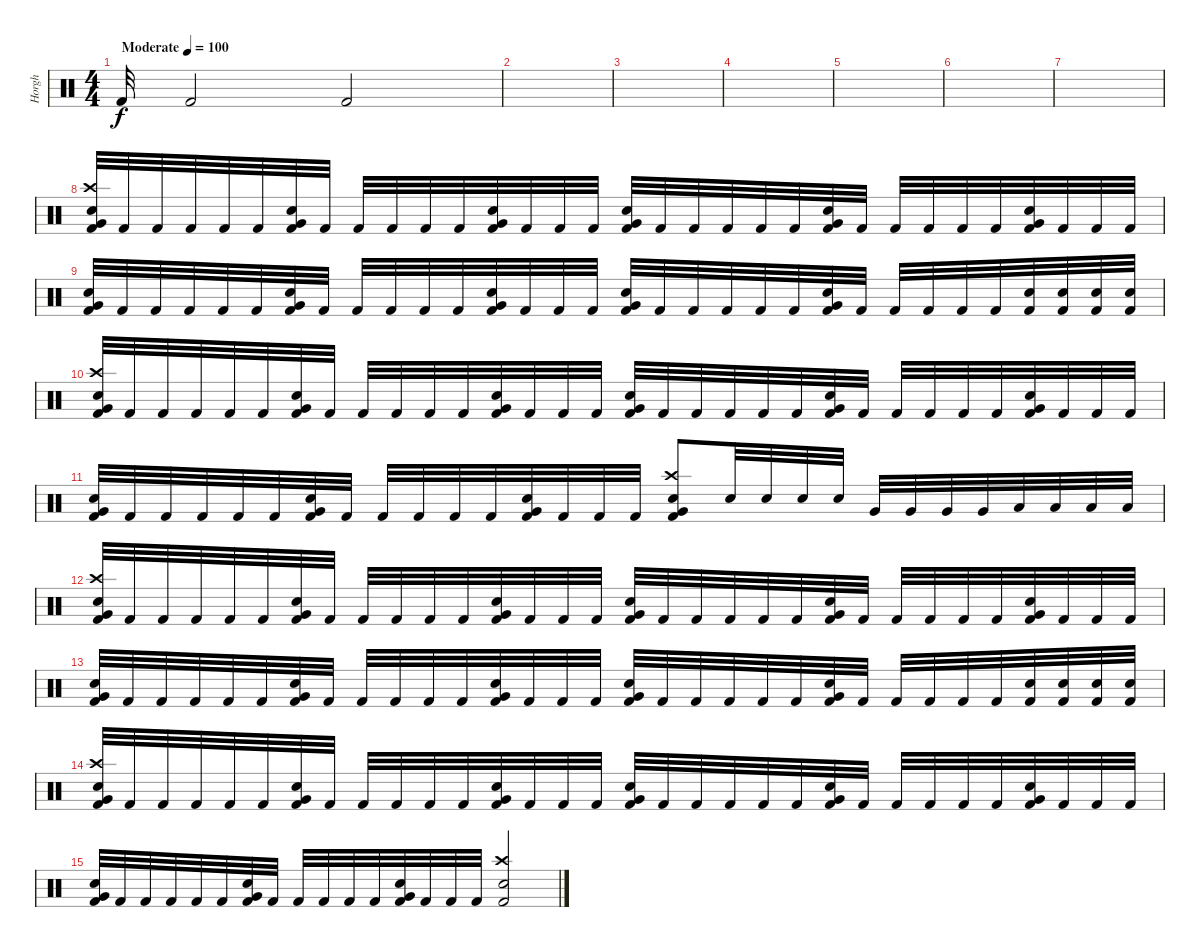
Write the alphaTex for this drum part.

\track ("Horgh" "Horgh") {instrument percussion}
\staff {score}
\articulation defaults
\ts (4 4)
\tempo (100 "Moderate")
\clef neutral
\ks c "Kick (hit) 2".32{dy f} "Kick (hit) 2".2 "Kick (hit) 2".2
|
|
|
|
|
|
|
("Crash high (hit)" "Electric Snare (hit)" "Very Low Tom (hit)" "Kick (hit) 2").32 "Kick (hit) 2".32 "Kick (hit) 2".32 "Kick (hit) 2".32 "Kick (hit) 2".32 "Kick (hit) 2".32 ("Electric Snare (hit)" "Very Low Tom (hit)" "Kick (hit) 2").32 "Kick (hit) 2".32 "Kick (hit) 2".32 "Kick (hit) 2".32 "Kick (hit) 2".32 "Kick (hit) 2".32 ("Electric Snare (hit)" "Very Low Tom (hit)" "Kick (hit) 2").32 "Kick (hit) 2".32 "Kick (hit) 2".32 "Kick (hit) 2".32 ("Electric Snare (hit)" "Very Low Tom (hit)" "Kick (hit) 2").32 "Kick (hit) 2".32 "Kick (hit) 2".32 "Kick (hit) 2".32 "Kick (hit) 2".32 "Kick (hit) 2".32 ("Electric Snare (hit)" "Very Low Tom (hit)" "Kick (hit) 2").32 "Kick (hit) 2".32 "Kick (hit) 2".32 "Kick (hit) 2".32 "Kick (hit) 2".32 "Kick (hit) 2".32 ("Electric Snare (hit)" "Very Low Tom (hit)" "Kick (hit) 2").32 "Kick (hit) 2".32 "Kick (hit) 2".32 "Kick (hit) 2".32 |
("Electric Snare (hit)" "Very Low Tom (hit)" "Kick (hit) 2").32 "Kick (hit) 2".32 "Kick (hit) 2".32 "Kick (hit) 2".32 "Kick (hit) 2".32 "Kick (hit) 2".32 ("Electric Snare (hit)" "Very Low Tom (hit)" "Kick (hit) 2").32 "Kick (hit) 2".32 "Kick (hit) 2".32 "Kick (hit) 2".32 "Kick (hit) 2".32 "Kick (hit) 2".32 ("Electric Snare (hit)" "Very Low Tom (hit)" "Kick (hit) 2").32 "Kick (hit) 2".32 "Kick (hit) 2".32 "Kick (hit) 2".32 ("Electric Snare (hit)" "Very Low Tom (hit)" "Kick (hit) 2").32 "Kick (hit) 2".32 "Kick (hit) 2".32 "Kick (hit) 2".32 "Kick (hit) 2".32 "Kick (hit) 2".32 ("Electric Snare (hit)" "Very Low Tom (hit)" "Kick (hit) 2").32 "Kick (hit) 2".32 "Kick (hit) 2".32 "Kick (hit) 2".32 "Kick (hit) 2".32 "Kick (hit) 2".32 ("Electric Snare (hit)" "Kick (hit) 2").32 ("Electric Snare (hit)" "Kick (hit) 2").32 ("Electric Snare (hit)" "Kick (hit) 2").32 ("Electric Snare (hit)" "Kick (hit) 2").32 |
("Crash high (hit)" "Electric Snare (hit)" "Very Low Tom (hit)" "Kick (hit) 2").32 "Kick (hit) 2".32 "Kick (hit) 2".32 "Kick (hit) 2".32 "Kick (hit) 2".32 "Kick (hit) 2".32 ("Electric Snare (hit)" "Very Low Tom (hit)" "Kick (hit) 2").32 "Kick (hit) 2".32 "Kick (hit) 2".32 "Kick (hit) 2".32 "Kick (hit) 2".32 "Kick (hit) 2".32 ("Electric Snare (hit)" "Very Low Tom (hit)" "Kick (hit) 2").32 "Kick (hit) 2".32 "Kick (hit) 2".32 "Kick (hit) 2".32 ("Electric Snare (hit)" "Very Low Tom (hit)" "Kick (hit) 2").32 "Kick (hit) 2".32 "Kick (hit) 2".32 "Kick (hit) 2".32 "Kick (hit) 2".32 "Kick (hit) 2".32 ("Electric Snare (hit)" "Very Low Tom (hit)" "Kick (hit) 2").32 "Kick (hit) 2".32 "Kick (hit) 2".32 "Kick (hit) 2".32 "Kick (hit) 2".32 "Kick (hit) 2".32 ("Electric Snare (hit)" "Very Low Tom (hit)" "Kick (hit) 2").32 "Kick (hit) 2".32 "Kick (hit) 2".32 "Kick (hit) 2".32 |
("Electric Snare (hit)" "Very Low Tom (hit)" "Kick (hit) 2").32 "Kick (hit) 2".32 "Kick (hit) 2".32 "Kick (hit) 2".32 "Kick (hit) 2".32 "Kick (hit) 2".32 ("Electric Snare (hit)" "Very Low Tom (hit)" "Kick (hit) 2").32 "Kick (hit) 2".32 "Kick (hit) 2".32 "Kick (hit) 2".32 "Kick (hit) 2".32 "Kick (hit) 2".32 ("Electric Snare (hit)" "Very Low Tom (hit)" "Kick (hit) 2").32 "Kick (hit) 2".32 "Kick (hit) 2".32 "Kick (hit) 2".32 ("Crash high (hit)" "Electric Snare (hit)" "Very Low Tom (hit)" "Kick (hit) 2").8 "Electric Snare (hit)".32 "Electric Snare (hit)".32 "Electric Snare (hit)".32 "Electric Snare (hit)".32 "Very Low Tom (hit)".32 "Very Low Tom (hit)".32 "Very Low Tom (hit)".32 "Very Low Tom (hit)".32 "Low Tom (hit)".32 "Low Tom (hit)".32 "Low Tom (hit)".32 "Low Tom (hit)".32 |
("Crash high (hit)" "Electric Snare (hit)" "Very Low Tom (hit)" "Kick (hit) 2").32 "Kick (hit) 2".32 "Kick (hit) 2".32 "Kick (hit) 2".32 "Kick (hit) 2".32 "Kick (hit) 2".32 ("Electric Snare (hit)" "Very Low Tom (hit)" "Kick (hit) 2").32 "Kick (hit) 2".32 "Kick (hit) 2".32 "Kick (hit) 2".32 "Kick (hit) 2".32 "Kick (hit) 2".32 ("Electric Snare (hit)" "Very Low Tom (hit)" "Kick (hit) 2").32 "Kick (hit) 2".32 "Kick (hit) 2".32 "Kick (hit) 2".32 ("Electric Snare (hit)" "Very Low Tom (hit)" "Kick (hit) 2").32 "Kick (hit) 2".32 "Kick (hit) 2".32 "Kick (hit) 2".32 "Kick (hit) 2".32 "Kick (hit) 2".32 ("Electric Snare (hit)" "Very Low Tom (hit)" "Kick (hit) 2").32 "Kick (hit) 2".32 "Kick (hit) 2".32 "Kick (hit) 2".32 "Kick (hit) 2".32 "Kick (hit) 2".32 ("Electric Snare (hit)" "Very Low Tom (hit)" "Kick (hit) 2").32 "Kick (hit) 2".32 "Kick (hit) 2".32 "Kick (hit) 2".32 |
("Electric Snare (hit)" "Very Low Tom (hit)" "Kick (hit) 2").32 "Kick (hit) 2".32 "Kick (hit) 2".32 "Kick (hit) 2".32 "Kick (hit) 2".32 "Kick (hit) 2".32 ("Electric Snare (hit)" "Very Low Tom (hit)" "Kick (hit) 2").32 "Kick (hit) 2".32 "Kick (hit) 2".32 "Kick (hit) 2".32 "Kick (hit) 2".32 "Kick (hit) 2".32 ("Electric Snare (hit)" "Very Low Tom (hit)" "Kick (hit) 2").32 "Kick (hit) 2".32 "Kick (hit) 2".32 "Kick (hit) 2".32 ("Electric Snare (hit)" "Very Low Tom (hit)" "Kick (hit) 2").32 "Kick (hit) 2".32 "Kick (hit) 2".32 "Kick (hit) 2".32 "Kick (hit) 2".32 "Kick (hit) 2".32 ("Electric Snare (hit)" "Very Low Tom (hit)" "Kick (hit) 2").32 "Kick (hit) 2".32 "Kick (hit) 2".32 "Kick (hit) 2".32 "Kick (hit) 2".32 "Kick (hit) 2".32 ("Electric Snare (hit)" "Kick (hit) 2").32 ("Electric Snare (hit)" "Kick (hit) 2").32 ("Electric Snare (hit)" "Kick (hit) 2").32 ("Electric Snare (hit)" "Kick (hit) 2").32 |
("Crash high (hit)" "Electric Snare (hit)" "Very Low Tom (hit)" "Kick (hit) 2").32 "Kick (hit) 2".32 "Kick (hit) 2".32 "Kick (hit) 2".32 "Kick (hit) 2".32 "Kick (hit) 2".32 ("Electric Snare (hit)" "Very Low Tom (hit)" "Kick (hit) 2").32 "Kick (hit) 2".32 "Kick (hit) 2".32 "Kick (hit) 2".32 "Kick (hit) 2".32 "Kick (hit) 2".32 ("Electric Snare (hit)" "Very Low Tom (hit)" "Kick (hit) 2").32 "Kick (hit) 2".32 "Kick (hit) 2".32 "Kick (hit) 2".32 ("Electric Snare (hit)" "Very Low Tom (hit)" "Kick (hit) 2").32 "Kick (hit) 2".32 "Kick (hit) 2".32 "Kick (hit) 2".32 "Kick (hit) 2".32 "Kick (hit) 2".32 ("Electric Snare (hit)" "Very Low Tom (hit)" "Kick (hit) 2").32 "Kick (hit) 2".32 "Kick (hit) 2".32 "Kick (hit) 2".32 "Kick (hit) 2".32 "Kick (hit) 2".32 ("Electric Snare (hit)" "Very Low Tom (hit)" "Kick (hit) 2").32 "Kick (hit) 2".32 "Kick (hit) 2".32 "Kick (hit) 2".32 |
("Electric Snare (hit)" "Very Low Tom (hit)" "Kick (hit) 2").32 "Kick (hit) 2".32 "Kick (hit) 2".32 "Kick (hit) 2".32 "Kick (hit) 2".32 "Kick (hit) 2".32 ("Electric Snare (hit)" "Very Low Tom (hit)" "Kick (hit) 2").32 "Kick (hit) 2".32 "Kick (hit) 2".32 "Kick (hit) 2".32 "Kick (hit) 2".32 "Kick (hit) 2".32 ("Electric Snare (hit)" "Very Low Tom (hit)" "Kick (hit) 2").32 "Kick (hit) 2".32 "Kick (hit) 2".32 "Kick (hit) 2".32 ("Crash high (hit)" "Electric Snare (hit)" "Kick (hit) 2").2
